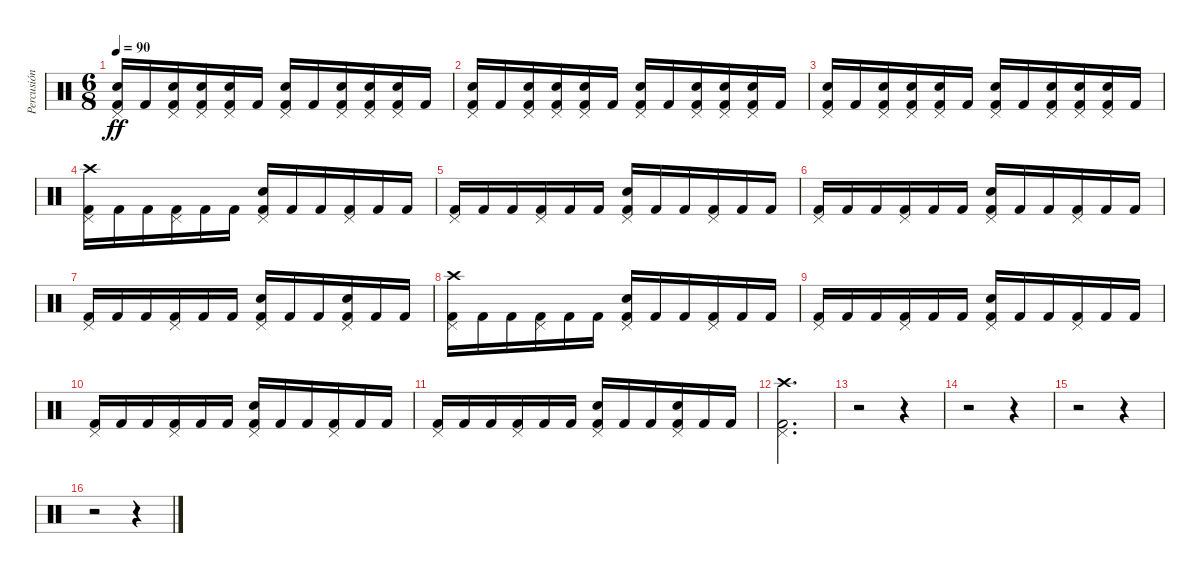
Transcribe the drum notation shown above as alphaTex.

\track ("Percusión" "Percusión") {instrument percussion}
\staff {score}
\articulation defaults
\ts (6 8)
\tempo 90
\clef neutral
\ks c
("Pedal Hi-Hat (hit)" "Electric Snare (hit)" "Kick (hit) 2").16{dy ff} "Kick (hit) 2".16 ("Pedal Hi-Hat (hit)" "Electric Snare (hit)" "Kick (hit) 2").16 ("Pedal Hi-Hat (hit)" "Electric Snare (hit)" "Kick (hit) 2").16 ("Pedal Hi-Hat (hit)" "Electric Snare (hit)" "Kick (hit) 2").16 "Kick (hit) 2".16 ("Pedal Hi-Hat (hit)" "Electric Snare (hit)" "Kick (hit) 2").16 "Kick (hit) 2".16 ("Pedal Hi-Hat (hit)" "Electric Snare (hit)" "Kick (hit) 2").16 ("Pedal Hi-Hat (hit)" "Electric Snare (hit)" "Kick (hit) 2").16 ("Pedal Hi-Hat (hit)" "Electric Snare (hit)" "Kick (hit) 2").16 "Kick (hit) 2".16 |
("Pedal Hi-Hat (hit)" "Electric Snare (hit)" "Kick (hit) 2").16 "Kick (hit) 2".16 ("Pedal Hi-Hat (hit)" "Electric Snare (hit)" "Kick (hit) 2").16 ("Pedal Hi-Hat (hit)" "Electric Snare (hit)" "Kick (hit) 2").16 ("Pedal Hi-Hat (hit)" "Electric Snare (hit)" "Kick (hit) 2").16 "Kick (hit) 2".16 ("Pedal Hi-Hat (hit)" "Electric Snare (hit)" "Kick (hit) 2").16 "Kick (hit) 2".16 ("Pedal Hi-Hat (hit)" "Electric Snare (hit)" "Kick (hit) 2").16 ("Pedal Hi-Hat (hit)" "Electric Snare (hit)" "Kick (hit) 2").16 ("Pedal Hi-Hat (hit)" "Electric Snare (hit)" "Kick (hit) 2").16 "Kick (hit) 2".16 |
("Pedal Hi-Hat (hit)" "Electric Snare (hit)" "Kick (hit) 2").16 "Kick (hit) 2".16 ("Pedal Hi-Hat (hit)" "Electric Snare (hit)" "Kick (hit) 2").16 ("Pedal Hi-Hat (hit)" "Electric Snare (hit)" "Kick (hit) 2").16 ("Pedal Hi-Hat (hit)" "Electric Snare (hit)" "Kick (hit) 2").16 "Kick (hit) 2".16 ("Pedal Hi-Hat (hit)" "Electric Snare (hit)" "Kick (hit) 2").16 "Kick (hit) 2".16 ("Pedal Hi-Hat (hit)" "Electric Snare (hit)" "Kick (hit) 2").16 ("Pedal Hi-Hat (hit)" "Electric Snare (hit)" "Kick (hit) 2").16 ("Pedal Hi-Hat (hit)" "Electric Snare (hit)" "Kick (hit) 2").16 "Kick (hit) 2".16 |
("Crash high (hit)" "Pedal Hi-Hat (hit)" "Kick (hit) 2").16 "Kick (hit) 2".16 "Kick (hit) 2".16 ("Pedal Hi-Hat (hit)" "Kick (hit) 2").16 "Kick (hit) 2".16 "Kick (hit) 2".16 ("Pedal Hi-Hat (hit)" "Electric Snare (hit)" "Kick (hit) 2").16 "Kick (hit) 2".16 "Kick (hit) 2".16 ("Pedal Hi-Hat (hit)" "Kick (hit) 2").16 "Kick (hit) 2".16 "Kick (hit) 2".16 |
("Pedal Hi-Hat (hit)" "Kick (hit) 2").16 "Kick (hit) 2".16 "Kick (hit) 2".16 ("Pedal Hi-Hat (hit)" "Kick (hit) 2").16 "Kick (hit) 2".16 "Kick (hit) 2".16 ("Pedal Hi-Hat (hit)" "Electric Snare (hit)" "Kick (hit) 2").16 "Kick (hit) 2".16 "Kick (hit) 2".16 ("Pedal Hi-Hat (hit)" "Kick (hit) 2").16 "Kick (hit) 2".16 "Kick (hit) 2".16 |
("Pedal Hi-Hat (hit)" "Kick (hit) 2").16 "Kick (hit) 2".16 "Kick (hit) 2".16 ("Pedal Hi-Hat (hit)" "Kick (hit) 2").16 "Kick (hit) 2".16 "Kick (hit) 2".16 ("Pedal Hi-Hat (hit)" "Electric Snare (hit)" "Kick (hit) 2").16 "Kick (hit) 2".16 "Kick (hit) 2".16 ("Pedal Hi-Hat (hit)" "Kick (hit) 2").16 "Kick (hit) 2".16 "Kick (hit) 2".16 |
("Pedal Hi-Hat (hit)" "Kick (hit) 2").16 "Kick (hit) 2".16 "Kick (hit) 2".16 ("Pedal Hi-Hat (hit)" "Kick (hit) 2").16 "Kick (hit) 2".16 "Kick (hit) 2".16 ("Pedal Hi-Hat (hit)" "Electric Snare (hit)" "Kick (hit) 2").16 "Kick (hit) 2".16 "Kick (hit) 2".16 ("Pedal Hi-Hat (hit)" "Electric Snare (hit)" "Kick (hit) 2").16 "Kick (hit) 2".16 "Kick (hit) 2".16 |
("Crash high (hit)" "Pedal Hi-Hat (hit)" "Kick (hit) 2").16 "Kick (hit) 2".16 "Kick (hit) 2".16 ("Pedal Hi-Hat (hit)" "Kick (hit) 2").16 "Kick (hit) 2".16 "Kick (hit) 2".16 ("Pedal Hi-Hat (hit)" "Electric Snare (hit)" "Kick (hit) 2").16 "Kick (hit) 2".16 "Kick (hit) 2".16 ("Pedal Hi-Hat (hit)" "Kick (hit) 2").16 "Kick (hit) 2".16 "Kick (hit) 2".16 |
("Pedal Hi-Hat (hit)" "Kick (hit) 2").16 "Kick (hit) 2".16 "Kick (hit) 2".16 ("Pedal Hi-Hat (hit)" "Kick (hit) 2").16 "Kick (hit) 2".16 "Kick (hit) 2".16 ("Pedal Hi-Hat (hit)" "Electric Snare (hit)" "Kick (hit) 2").16 "Kick (hit) 2".16 "Kick (hit) 2".16 ("Pedal Hi-Hat (hit)" "Kick (hit) 2").16 "Kick (hit) 2".16 "Kick (hit) 2".16 |
("Pedal Hi-Hat (hit)" "Kick (hit) 2").16 "Kick (hit) 2".16 "Kick (hit) 2".16 ("Pedal Hi-Hat (hit)" "Kick (hit) 2").16 "Kick (hit) 2".16 "Kick (hit) 2".16 ("Pedal Hi-Hat (hit)" "Electric Snare (hit)" "Kick (hit) 2").16 "Kick (hit) 2".16 "Kick (hit) 2".16 ("Pedal Hi-Hat (hit)" "Kick (hit) 2").16 "Kick (hit) 2".16 "Kick (hit) 2".16 |
("Pedal Hi-Hat (hit)" "Kick (hit) 2").16 "Kick (hit) 2".16 "Kick (hit) 2".16 ("Pedal Hi-Hat (hit)" "Kick (hit) 2").16 "Kick (hit) 2".16 "Kick (hit) 2".16 ("Pedal Hi-Hat (hit)" "Electric Snare (hit)" "Kick (hit) 2").16 "Kick (hit) 2".16 "Kick (hit) 2".16 ("Pedal Hi-Hat (hit)" "Electric Snare (hit)" "Kick (hit) 2").16 "Kick (hit) 2".16 "Kick (hit) 2".16 |
("Crash high (hit)" "Pedal Hi-Hat (hit)" "Kick (hit) 2").2{d} |
r.2 r.4 |
r.2 r.4 |
r.2 r.4 |
r.2 r.4
